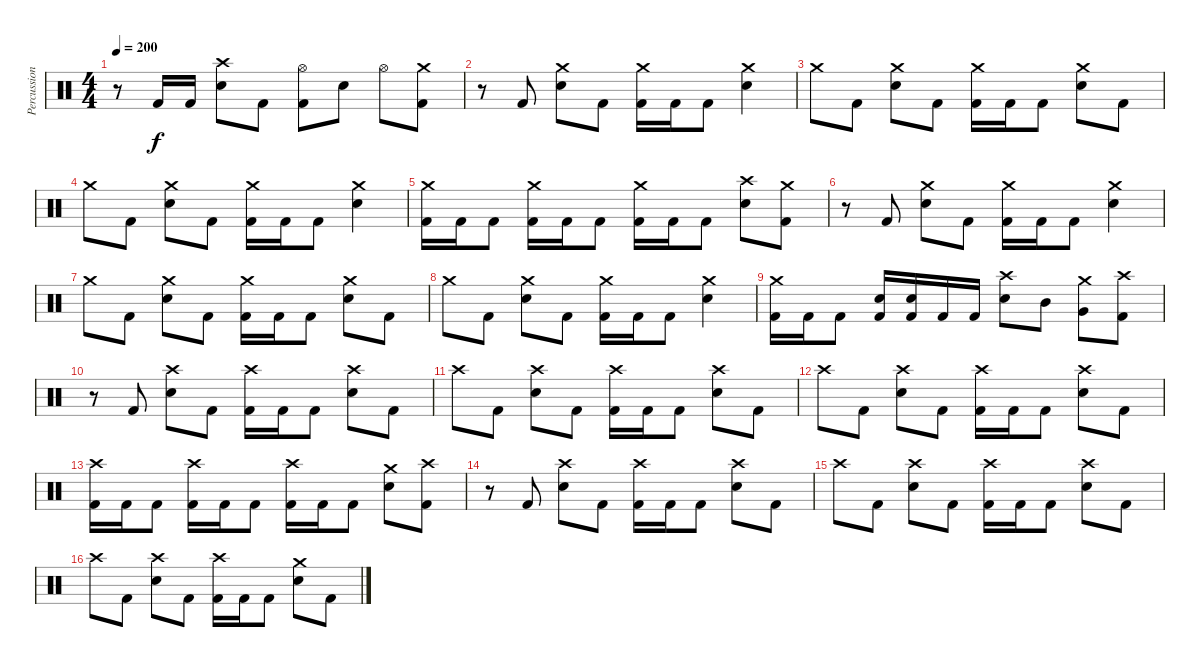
\track ("Percussion" "Percussion") {instrument percussion}
\staff {score}
\articulation defaults
\ts (4 4)
\tempo 200
\clef neutral
\ks c
r.8{dy f} "Kick (hit) 2".16 "Kick (hit) 2".16 ("Crash high (hit)" "Snare (hit) 2").8 "Kick (hit) 2".8 ("Hi-Hat (open)" "Kick (hit) 2").8 "Snare (hit) 2".8 "Hi-Hat (open)".8 ("Crash medium (hit)" "Kick (hit) 2").8 |
r.8 "Kick (hit) 2".8 ("Crash medium (hit)" "Snare (hit) 2").8 "Kick (hit) 2".8 ("Crash medium (hit)" "Kick (hit) 2").16 "Kick (hit) 2".16 "Kick (hit) 2".8 ("Crash medium (hit)" "Snare (hit) 2").4 |
"Crash medium (hit)".8 "Kick (hit) 2".8 ("Crash medium (hit)" "Snare (hit) 2").8 "Kick (hit) 2".8 ("Crash medium (hit)" "Kick (hit) 2").16 "Kick (hit) 2".16 "Kick (hit) 2".8 ("Crash medium (hit)" "Snare (hit) 2").8 "Kick (hit) 2".8 |
"Crash medium (hit)".8 "Kick (hit) 2".8 ("Crash medium (hit)" "Snare (hit) 2").8 "Kick (hit) 2".8 ("Crash medium (hit)" "Kick (hit) 2").16 "Kick (hit) 2".16 "Kick (hit) 2".8 ("Crash medium (hit)" "Snare (hit) 2").4 |
("Crash medium (hit)" "Kick (hit) 2").16 "Kick (hit) 2".16 "Kick (hit) 2".8 ("Crash medium (hit)" "Kick (hit) 2").16 "Kick (hit) 2".16 "Kick (hit) 2".8 ("Crash medium (hit)" "Kick (hit) 2").16 "Kick (hit) 2".16 "Kick (hit) 2".8 ("Crash high (hit)" "Snare (hit) 2").8 ("Crash medium (hit)" "Kick (hit) 2").8 |
r.8 "Kick (hit) 2".8 ("Crash medium (hit)" "Snare (hit) 2").8 "Kick (hit) 2".8 ("Crash medium (hit)" "Kick (hit) 2").16 "Kick (hit) 2".16 "Kick (hit) 2".8 ("Crash medium (hit)" "Snare (hit) 2").4 |
"Crash medium (hit)".8 "Kick (hit) 2".8 ("Crash medium (hit)" "Snare (hit) 2").8 "Kick (hit) 2".8 ("Crash medium (hit)" "Kick (hit) 2").16 "Kick (hit) 2".16 "Kick (hit) 2".8 ("Crash medium (hit)" "Snare (hit) 2").8 "Kick (hit) 2".8 |
"Crash medium (hit)".8 "Kick (hit) 2".8 ("Crash medium (hit)" "Snare (hit) 2").8 "Kick (hit) 2".8 ("Crash medium (hit)" "Kick (hit) 2").16 "Kick (hit) 2".16 "Kick (hit) 2".8 ("Crash medium (hit)" "Snare (hit) 2").4 |
("Crash medium (hit)" "Kick (hit) 2").16 "Kick (hit) 2".16 "Kick (hit) 2".8 ("Snare (hit) 2" "Kick (hit) 2").16 ("Snare (hit) 2" "Kick (hit) 2").16 "Kick (hit) 2".16 "Kick (hit) 2".16 ("Crash high (hit)" "Snare (hit) 2").8 "Mid Tom (hit)".8 ("Crash medium (hit)" "Very Low Tom (hit)").8 ("Crash high (hit)" "Kick (hit) 2").8 |
r.8 "Kick (hit) 2".8 ("Crash high (hit)" "Snare (hit) 2").8 "Kick (hit) 2".8 ("Crash high (hit)" "Kick (hit) 2").16 "Kick (hit) 2".16 "Kick (hit) 2".8 ("Crash high (hit)" "Snare (hit) 2").8 "Kick (hit) 2".8 |
"Crash high (hit)".8 "Kick (hit) 2".8 ("Crash high (hit)" "Snare (hit) 2").8 "Kick (hit) 2".8 ("Crash high (hit)" "Kick (hit) 2").16 "Kick (hit) 2".16 "Kick (hit) 2".8 ("Crash high (hit)" "Snare (hit) 2").8 "Kick (hit) 2".8 |
"Crash high (hit)".8 "Kick (hit) 2".8 ("Crash high (hit)" "Snare (hit) 2").8 "Kick (hit) 2".8 ("Crash high (hit)" "Kick (hit) 2").16 "Kick (hit) 2".16 "Kick (hit) 2".8 ("Crash high (hit)" "Snare (hit) 2").8 "Kick (hit) 2".8 |
("Crash high (hit)" "Kick (hit) 2").16 "Kick (hit) 2".16 "Kick (hit) 2".8 ("Crash high (hit)" "Kick (hit) 2").16 "Kick (hit) 2".16 "Kick (hit) 2".8 ("Crash high (hit)" "Kick (hit) 2").16 "Kick (hit) 2".16 "Kick (hit) 2".8 ("Crash medium (hit)" "Snare (hit) 2").8 ("Crash high (hit)" "Kick (hit) 2").8 |
r.8 "Kick (hit) 2".8 ("Crash high (hit)" "Snare (hit) 2").8 "Kick (hit) 2".8 ("Crash high (hit)" "Kick (hit) 2").16 "Kick (hit) 2".16 "Kick (hit) 2".8 ("Crash high (hit)" "Snare (hit) 2").8 "Kick (hit) 2".8 |
"Crash high (hit)".8 "Kick (hit) 2".8 ("Crash high (hit)" "Snare (hit) 2").8 "Kick (hit) 2".8 ("Crash high (hit)" "Kick (hit) 2").16 "Kick (hit) 2".16 "Kick (hit) 2".8 ("Crash high (hit)" "Snare (hit) 2").8 "Kick (hit) 2".8 |
"Crash high (hit)".8 "Kick (hit) 2".8 ("Crash high (hit)" "Snare (hit) 2").8 "Kick (hit) 2".8 ("Crash high (hit)" "Kick (hit) 2").16 "Kick (hit) 2".16 "Kick (hit) 2".8 ("Crash medium (hit)" "Snare (hit) 2").8 "Kick (hit) 2".8
